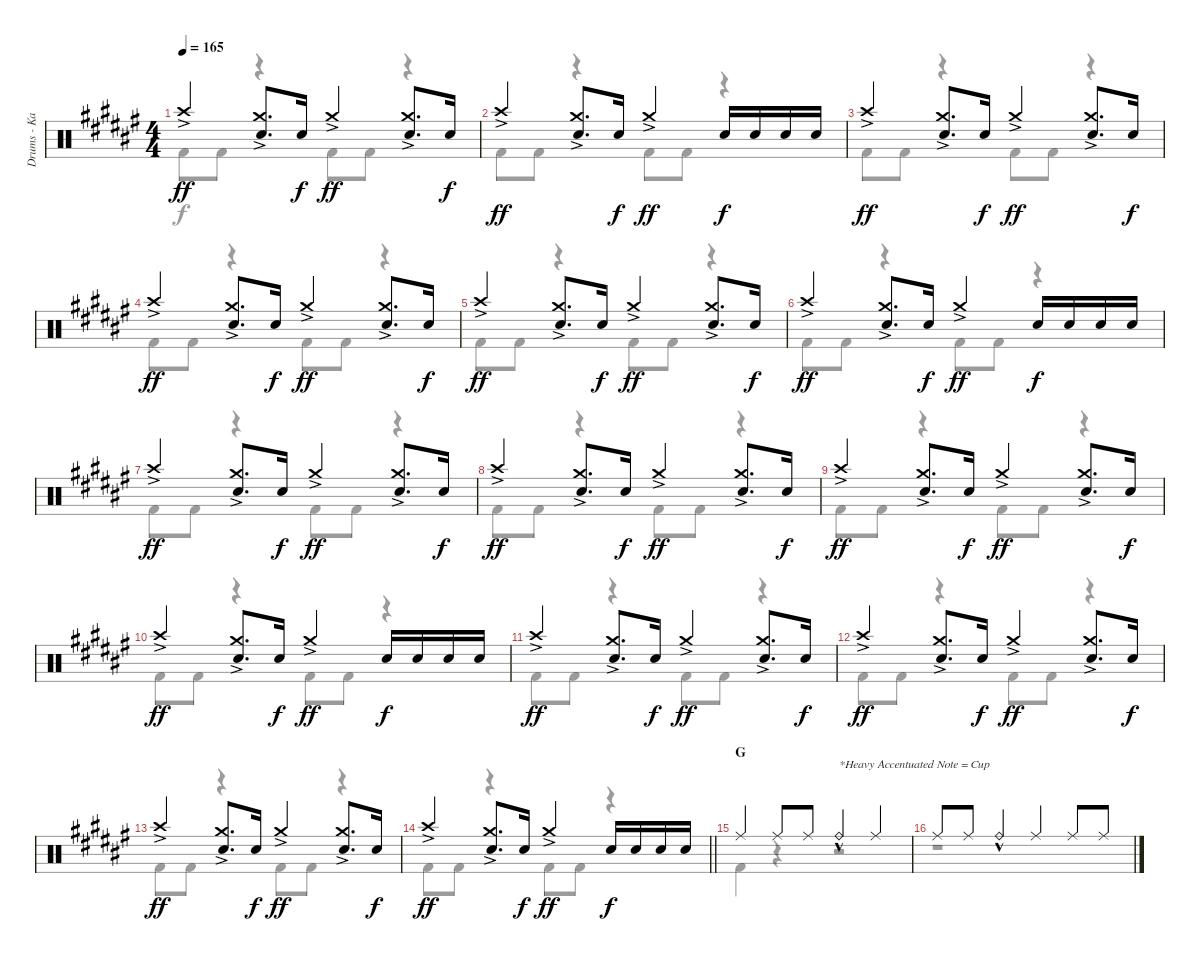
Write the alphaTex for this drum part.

\track ("Drums - Kai" "Drums - Ka") {instrument percussion}
\staff {score}
\articulation defaults
\voice
\ts (4 4)
\tempo 165
\clef neutral
\ks f# "Crash high (hit)"{ac}.4{dy ff}
("Crash medium (hit)"{ac} "Electric Snare (hit)").8{d} "Electric Snare (hit)".16{dy f} "Crash medium (hit)"{ac}.4{dy ff} ("Crash medium (hit)"{ac} "Electric Snare (hit)").8{d} "Electric Snare (hit)".16{dy f} |
"Crash high (hit)"{ac}.4{dy ff} ("Crash medium (hit)"{ac} "Electric Snare (hit)").8{d} "Electric Snare (hit)".16{dy f} "Crash medium (hit)"{ac}.4{dy ff} "Electric Snare (hit)".16{dy f} "Electric Snare (hit)".16 "Electric Snare (hit)".16 "Electric Snare (hit)".16 |
"Crash high (hit)"{ac}.4{dy ff} ("Crash medium (hit)"{ac} "Electric Snare (hit)").8{d} "Electric Snare (hit)".16{dy f} "Crash medium (hit)"{ac}.4{dy ff} ("Crash medium (hit)"{ac} "Electric Snare (hit)").8{d} "Electric Snare (hit)".16{dy f} |
"Crash high (hit)"{ac}.4{dy ff} ("Crash medium (hit)"{ac} "Electric Snare (hit)").8{d} "Electric Snare (hit)".16{dy f} "Crash medium (hit)"{ac}.4{dy ff} ("Crash medium (hit)"{ac} "Electric Snare (hit)").8{d} "Electric Snare (hit)".16{dy f} |
"Crash high (hit)"{ac}.4{dy ff} ("Crash medium (hit)"{ac} "Electric Snare (hit)").8{d} "Electric Snare (hit)".16{dy f} "Crash medium (hit)"{ac}.4{dy ff} ("Crash medium (hit)"{ac} "Electric Snare (hit)").8{d} "Electric Snare (hit)".16{dy f} |
"Crash high (hit)"{ac}.4{dy ff} ("Crash medium (hit)"{ac} "Electric Snare (hit)").8{d} "Electric Snare (hit)".16{dy f} "Crash medium (hit)"{ac}.4{dy ff} "Electric Snare (hit)".16{dy f} "Electric Snare (hit)".16 "Electric Snare (hit)".16 "Electric Snare (hit)".16 |
"Crash high (hit)"{ac}.4{dy ff} ("Crash medium (hit)"{ac} "Electric Snare (hit)").8{d} "Electric Snare (hit)".16{dy f} "Crash medium (hit)"{ac}.4{dy ff} ("Crash medium (hit)"{ac} "Electric Snare (hit)").8{d} "Electric Snare (hit)".16{dy f} |
"Crash high (hit)"{ac}.4{dy ff} ("Crash medium (hit)"{ac} "Electric Snare (hit)").8{d} "Electric Snare (hit)".16{dy f} "Crash medium (hit)"{ac}.4{dy ff} ("Crash medium (hit)"{ac} "Electric Snare (hit)").8{d} "Electric Snare (hit)".16{dy f} |
"Crash high (hit)"{ac}.4{dy ff} ("Crash medium (hit)"{ac} "Electric Snare (hit)").8{d} "Electric Snare (hit)".16{dy f} "Crash medium (hit)"{ac}.4{dy ff} ("Crash medium (hit)"{ac} "Electric Snare (hit)").8{d} "Electric Snare (hit)".16{dy f} |
"Crash high (hit)"{ac}.4{dy ff} ("Crash medium (hit)"{ac} "Electric Snare (hit)").8{d} "Electric Snare (hit)".16{dy f} "Crash medium (hit)"{ac}.4{dy ff} "Electric Snare (hit)".16{dy f} "Electric Snare (hit)".16 "Electric Snare (hit)".16 "Electric Snare (hit)".16 |
"Crash high (hit)"{ac}.4{dy ff} ("Crash medium (hit)"{ac} "Electric Snare (hit)").8{d} "Electric Snare (hit)".16{dy f} "Crash medium (hit)"{ac}.4{dy ff} ("Crash medium (hit)"{ac} "Electric Snare (hit)").8{d} "Electric Snare (hit)".16{dy f} |
"Crash high (hit)"{ac}.4{dy ff} ("Crash medium (hit)"{ac} "Electric Snare (hit)").8{d} "Electric Snare (hit)".16{dy f} "Crash medium (hit)"{ac}.4{dy ff} ("Crash medium (hit)"{ac} "Electric Snare (hit)").8{d} "Electric Snare (hit)".16{dy f} |
"Crash high (hit)"{ac}.4{dy ff} ("Crash medium (hit)"{ac} "Electric Snare (hit)").8{d} "Electric Snare (hit)".16{dy f} "Crash medium (hit)"{ac}.4{dy ff} ("Crash medium (hit)"{ac} "Electric Snare (hit)").8{d} "Electric Snare (hit)".16{dy f} |
\barLineRight lightlight "Crash high (hit)"{ac}.4{dy ff}
("Crash medium (hit)"{ac} "Electric Snare (hit)").8{d} "Electric Snare (hit)".16{dy f} "Crash medium (hit)"{ac}.4{dy ff} "Electric Snare (hit)".16{dy f} "Electric Snare (hit)".16 "Electric Snare (hit)".16 "Electric Snare (hit)".16 |
\section ("" "G")
"Ride (middle)".4 "Ride (middle)".8 "Ride (middle)".8 "Ride (bell)"{hac}.4{txt "*Heavy Accentuated Note = Cup"} "Ride (middle)".4 |
"Ride (middle)".8 "Ride (middle)".8 "Ride (bell)"{hac}.4 "Ride (middle)".4 "Ride (middle)".8 "Ride (middle)".8
\voice
\clef neutral
\ottava regular
\simile none
\ks f# "Kick (hit) 2".8{dy f} "Kick (hit) 2".8
r.4 "Kick (hit) 2".8 "Kick (hit) 2".8 r.4 |
"Kick (hit) 2".8 "Kick (hit) 2".8 r.4 "Kick (hit) 2".8 "Kick (hit) 2".8 r.4 |
"Kick (hit) 2".8 "Kick (hit) 2".8 r.4 "Kick (hit) 2".8 "Kick (hit) 2".8 r.4 |
"Kick (hit) 2".8 "Kick (hit) 2".8 r.4 "Kick (hit) 2".8 "Kick (hit) 2".8 r.4 |
"Kick (hit) 2".8 "Kick (hit) 2".8 r.4 "Kick (hit) 2".8 "Kick (hit) 2".8 r.4 |
"Kick (hit) 2".8 "Kick (hit) 2".8 r.4 "Kick (hit) 2".8 "Kick (hit) 2".8 r.4 |
"Kick (hit) 2".8 "Kick (hit) 2".8 r.4 "Kick (hit) 2".8 "Kick (hit) 2".8 r.4 |
"Kick (hit) 2".8 "Kick (hit) 2".8 r.4 "Kick (hit) 2".8 "Kick (hit) 2".8 r.4 |
"Kick (hit) 2".8 "Kick (hit) 2".8 r.4 "Kick (hit) 2".8 "Kick (hit) 2".8 r.4 |
"Kick (hit) 2".8 "Kick (hit) 2".8 r.4 "Kick (hit) 2".8 "Kick (hit) 2".8 r.4 |
"Kick (hit) 2".8 "Kick (hit) 2".8 r.4 "Kick (hit) 2".8 "Kick (hit) 2".8 r.4 |
"Kick (hit) 2".8 "Kick (hit) 2".8 r.4 "Kick (hit) 2".8 "Kick (hit) 2".8 r.4 |
"Kick (hit) 2".8 "Kick (hit) 2".8 r.4 "Kick (hit) 2".8 "Kick (hit) 2".8 r.4 |
\barLineRight lightlight "Kick (hit) 2".8 "Kick (hit) 2".8
r.4 "Kick (hit) 2".8 "Kick (hit) 2".8 r.4 |
"Kick (hit) 2".4 r.4 r.2 |
r.1
